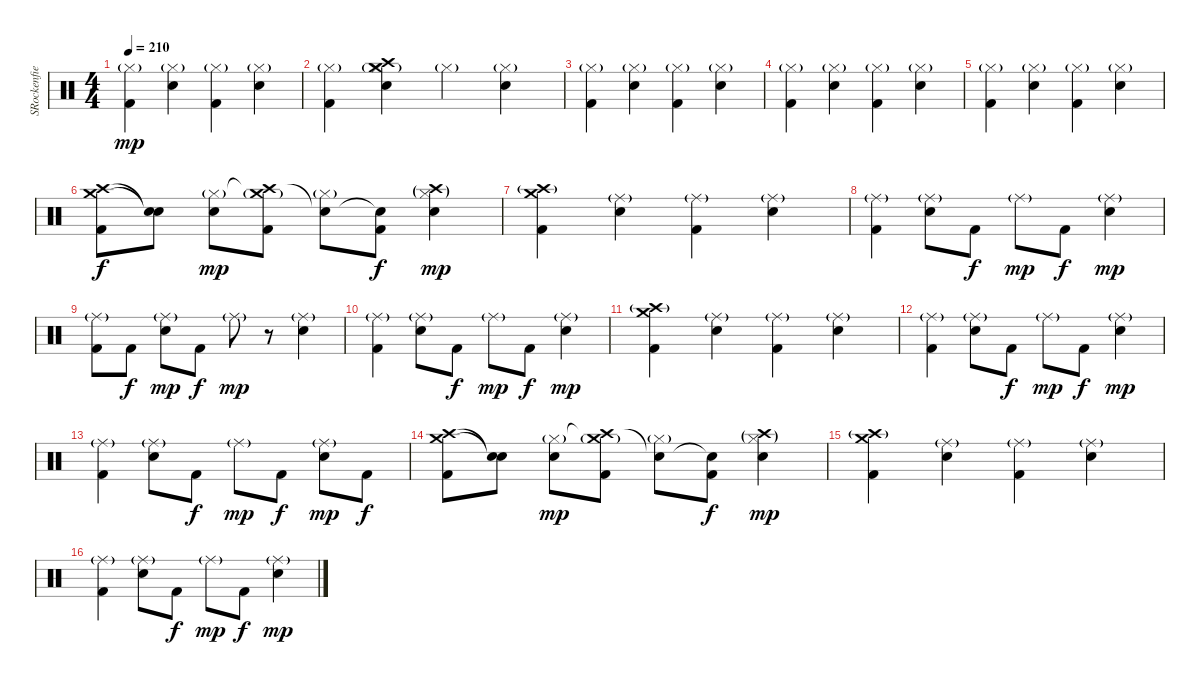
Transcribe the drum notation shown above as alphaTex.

\track ("SRockenfield" "SRockenfie") {instrument percussion}
\staff {score}
\articulation defaults
\ts (4 4)
\tempo 210
\clef neutral
\ks c
("Hi-Hat (closed)"{g} "Kick (hit) 2").4{dy mp} ("Hi-Hat (closed)"{g} "Electric Snare (hit)").4 ("Hi-Hat (closed)"{g} "Kick (hit) 2").4 ("Hi-Hat (closed)"{g} "Electric Snare (hit)").4 |
("Hi-Hat (closed)"{g} "Kick (hit) 2").4 ("Hi-Hat (closed)"{g} "Crash medium (hit)"{g} "Crash high (hit)" "Electric Snare (hit)").4 "Hi-Hat (closed)"{g}.4 ("Hi-Hat (closed)"{g} "Electric Snare (hit)").4 |
("Hi-Hat (closed)"{g} "Kick (hit) 2").4 ("Hi-Hat (closed)"{g} "Electric Snare (hit)").4 ("Hi-Hat (closed)"{g} "Kick (hit) 2").4 ("Hi-Hat (closed)"{g} "Electric Snare (hit)").4 |
("Hi-Hat (closed)"{g} "Kick (hit) 2").4 ("Hi-Hat (closed)"{g} "Electric Snare (hit)").4 ("Hi-Hat (closed)"{g} "Kick (hit) 2").4 ("Hi-Hat (closed)"{g} "Electric Snare (hit)").4 |
("Hi-Hat (closed)"{g} "Kick (hit) 2").4 ("Hi-Hat (closed)"{g} "Electric Snare (hit)").4 ("Hi-Hat (closed)"{g} "Kick (hit) 2").4 ("Hi-Hat (closed)"{g} "Electric Snare (hit)").4 |
("Crash high (hit)" "Crash medium (hit)" "Kick (hit) 2").8{dy f} ("Snare (hit)"{t} "Snare (hit)"{t}).8 ("Hi-Hat (closed)"{g} "Electric Snare (hit)").8{dy mp} ("Crash high (hit)"{t} "Crash medium (hit)"{g} "Kick (hit) 2").8 ("Snare (hit)"{t} "Hi-Hat (closed)"{g}).8 ("Snare (hit)"{t} "Kick (hit) 2").8{dy f} ("Crash high (hit)"{g} "Hi-Hat (closed)"{g} "Electric Snare (hit)").4{dy mp} |
("Crash high (hit)"{g} "Crash medium (hit)" "Kick (hit) 2").4 ("Ride (middle)"{g} "Electric Snare (hit)").4 ("Ride (middle)"{g} "Kick (hit) 2").4 ("Ride (middle)"{g} "Electric Snare (hit)").4 |
("Ride (middle)"{g} "Kick (hit) 2").4 ("Ride (middle)"{g} "Electric Snare (hit)").8 "Kick (hit) 2".8{dy f} "Ride (middle)"{g}.8{dy mp} "Kick (hit) 2".8{dy f} ("Ride (middle)"{g} "Electric Snare (hit)").4{dy mp} |
("Ride (middle)"{g} "Kick (hit) 2").8 "Kick (hit) 2".8{dy f} ("Ride (middle)"{g} "Electric Snare (hit)").8{dy mp} "Kick (hit) 2".8{dy f} "Ride (middle)"{g}.8{dy mp} r.8 ("Ride (middle)"{g} "Electric Snare (hit)").4 |
("Ride (middle)"{g} "Kick (hit) 2").4 ("Ride (middle)"{g} "Electric Snare (hit)").8 "Kick (hit) 2".8{dy f} "Ride (middle)"{g}.8{dy mp} "Kick (hit) 2".8{dy f} ("Ride (middle)"{g} "Electric Snare (hit)").4{dy mp} |
("Crash high (hit)"{g} "Crash medium (hit)" "Kick (hit) 2").4 ("Ride (middle)"{g} "Electric Snare (hit)").4 ("Ride (middle)"{g} "Kick (hit) 2").4 ("Ride (middle)"{g} "Electric Snare (hit)").4 |
("Ride (middle)"{g} "Kick (hit) 2").4 ("Ride (middle)"{g} "Electric Snare (hit)").8 "Kick (hit) 2".8{dy f} "Ride (middle)"{g}.8{dy mp} "Kick (hit) 2".8{dy f} ("Ride (middle)"{g} "Electric Snare (hit)").4{dy mp} |
("Ride (middle)"{g} "Kick (hit) 2").4 ("Ride (middle)"{g} "Electric Snare (hit)").8 "Kick (hit) 2".8{dy f} "Ride (middle)"{g}.8{dy mp} "Kick (hit) 2".8{dy f} ("Ride (middle)"{g} "Electric Snare (hit)").8{dy mp} "Kick (hit) 2".8{dy f} |
("Crash high (hit)" "Crash medium (hit)" "Kick (hit) 2").8 ("Snare (hit)"{t} "Snare (hit)"{t}).8 ("Hi-Hat (closed)"{g} "Electric Snare (hit)").8{dy mp} ("Crash high (hit)"{t} "Crash medium (hit)"{g} "Kick (hit) 2").8 ("Snare (hit)"{t} "Hi-Hat (closed)"{g}).8 ("Snare (hit)"{t} "Kick (hit) 2").8{dy f} ("Crash high (hit)"{g} "Hi-Hat (closed)"{g} "Electric Snare (hit)").4{dy mp} |
("Crash high (hit)"{g} "Crash medium (hit)" "Kick (hit) 2").4 ("Ride (middle)"{g} "Electric Snare (hit)").4 ("Ride (middle)"{g} "Kick (hit) 2").4 ("Ride (middle)"{g} "Electric Snare (hit)").4 |
("Ride (middle)"{g} "Kick (hit) 2").4 ("Ride (middle)"{g} "Electric Snare (hit)").8 "Kick (hit) 2".8{dy f} "Ride (middle)"{g}.8{dy mp} "Kick (hit) 2".8{dy f} ("Ride (middle)"{g} "Electric Snare (hit)").4{dy mp}
